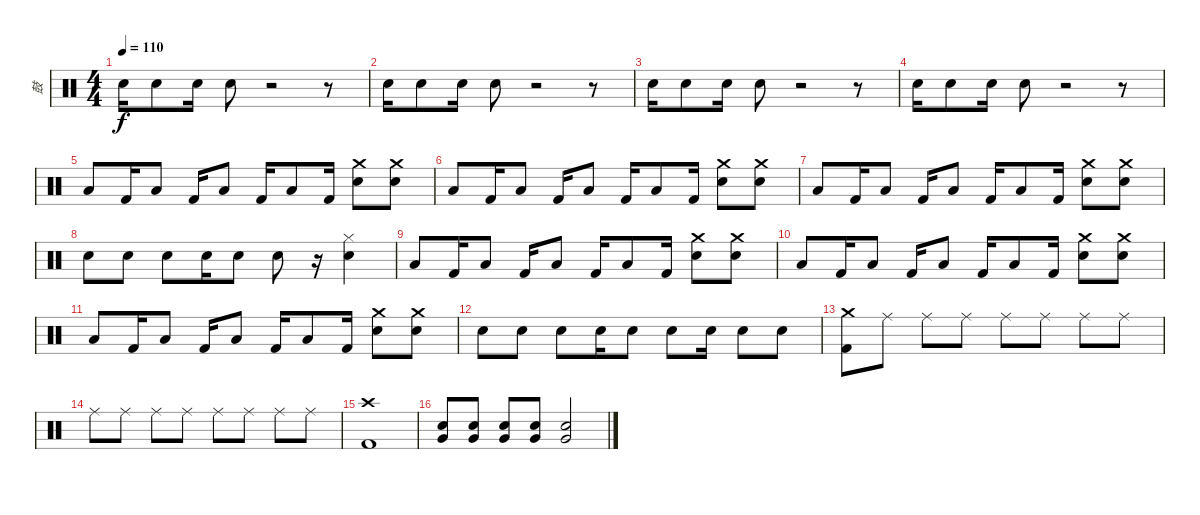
\track ("鼓" "鼓") {instrument percussion}
\staff {score}
\articulation defaults
\ts (4 4)
\tempo 110
\clef neutral
\ks c "Electric Snare (hit)".16{dy f} "Electric Snare (hit)".8 "Electric Snare (hit)".16 "Electric Snare (hit)".8
r.2 r.8 |
"Electric Snare (hit)".16 "Electric Snare (hit)".8 "Electric Snare (hit)".16 "Electric Snare (hit)".8 r.2 r.8 |
"Electric Snare (hit)".16 "Electric Snare (hit)".8 "Electric Snare (hit)".16 "Electric Snare (hit)".8 r.2 r.8 |
"Electric Snare (hit)".16 "Electric Snare (hit)".8 "Electric Snare (hit)".16 "Electric Snare (hit)".8 r.2 r.8 |
"Low Tom (hit)".8 "Kick (hit) 2".16 "Low Tom (hit)".8 "Kick (hit) 2".16 "Low Tom (hit)".8 "Kick (hit) 2".16 "Low Tom (hit)".8 "Kick (hit) 2".16 ("Electric Snare (hit)" "Crash medium (hit)").8 ("Electric Snare (hit)" "Crash medium (hit)").8 |
"Low Tom (hit)".8 "Kick (hit) 2".16 "Low Tom (hit)".8 "Kick (hit) 2".16 "Low Tom (hit)".8 "Kick (hit) 2".16 "Low Tom (hit)".8 "Kick (hit) 2".16 ("Electric Snare (hit)" "Crash medium (hit)").8 ("Electric Snare (hit)" "Crash medium (hit)").8 |
"Low Tom (hit)".8 "Kick (hit) 2".16 "Low Tom (hit)".8 "Kick (hit) 2".16 "Low Tom (hit)".8 "Kick (hit) 2".16 "Low Tom (hit)".8 "Kick (hit) 2".16 ("Electric Snare (hit)" "Crash medium (hit)").8 ("Electric Snare (hit)" "Crash medium (hit)").8 |
"Electric Snare (hit)".8 "Electric Snare (hit)".8 "Electric Snare (hit)".8 "Electric Snare (hit)".16 "Electric Snare (hit)".8 "Electric Snare (hit)".8 r.16 ("Electric Snare (hit)" "Hi-Hat (closed)").4 |
"Low Tom (hit)".8 "Kick (hit) 2".16 "Low Tom (hit)".8 "Kick (hit) 2".16 "Low Tom (hit)".8 "Kick (hit) 2".16 "Low Tom (hit)".8 "Kick (hit) 2".16 ("Electric Snare (hit)" "Crash medium (hit)").8 ("Electric Snare (hit)" "Crash medium (hit)").8 |
"Low Tom (hit)".8 "Kick (hit) 2".16 "Low Tom (hit)".8 "Kick (hit) 2".16 "Low Tom (hit)".8 "Kick (hit) 2".16 "Low Tom (hit)".8 "Kick (hit) 2".16 ("Electric Snare (hit)" "Crash medium (hit)").8 ("Electric Snare (hit)" "Crash medium (hit)").8 |
"Low Tom (hit)".8 "Kick (hit) 2".16 "Low Tom (hit)".8 "Kick (hit) 2".16 "Low Tom (hit)".8 "Kick (hit) 2".16 "Low Tom (hit)".8 "Kick (hit) 2".16 ("Electric Snare (hit)" "Crash medium (hit)").8 ("Electric Snare (hit)" "Crash medium (hit)").8 |
"Electric Snare (hit)".8 "Electric Snare (hit)".8 "Electric Snare (hit)".8 "Electric Snare (hit)".16 "Electric Snare (hit)".8 "Electric Snare (hit)".8 "Electric Snare (hit)".16 "Electric Snare (hit)".8 "Electric Snare (hit)".8 |
("Kick (hit) 2" "Crash medium (hit)").8 "Ride (middle)".8 "Ride (middle)".8 "Ride (middle)".8 "Ride (middle)".8 "Ride (middle)".8 "Ride (middle)".8 "Ride (middle)".8 |
"Ride (middle)".8 "Ride (middle)".8 "Ride (middle)".8 "Ride (middle)".8 "Ride (middle)".8 "Ride (middle)".8 "Ride (middle)".8 "Ride (middle)".8 |
("Kick (hit) 2" "Crash high (hit)").1 |
("Electric Snare (hit)" "Very Low Tom (hit)").8 ("Electric Snare (hit)" "Very Low Tom (hit)").8 ("Electric Snare (hit)" "Very Low Tom (hit)").8 ("Electric Snare (hit)" "Very Low Tom (hit)").8 ("Electric Snare (hit)" "Very Low Tom (hit)").2
